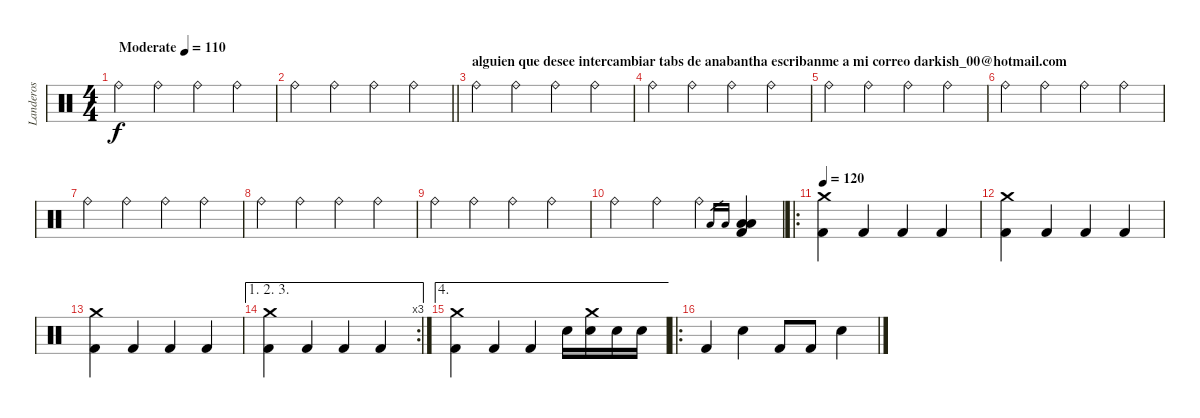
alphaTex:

\track ("Landeros" "Landeros") {instrument percussion}
\staff {score}
\articulation defaults
\ts (4 4)
\tempo (110 "Moderate")
\clef neutral
\ks c "Ride (bell)".4{dy f} "Ride (bell)".4 "Ride (bell)".4 "Ride (bell)".4
|
\barLineRight lightlight "Ride (bell)".4 "Ride (bell)".4 "Ride (bell)".4 "Ride (bell)".4
|
\section ("" "alguien que desee intercambiar tabs de anabantha escribanme a mi correo darkish_00@hotmail.com")
"Ride (bell)".4 "Ride (bell)".4 "Ride (bell)".4 "Ride (bell)".4 |
"Ride (bell)".4 "Ride (bell)".4 "Ride (bell)".4 "Ride (bell)".4 |
"Ride (bell)".4 "Ride (bell)".4 "Ride (bell)".4 "Ride (bell)".4 |
"Ride (bell)".4 "Ride (bell)".4 "Ride (bell)".4 "Ride (bell)".4 |
"Ride (bell)".4 "Ride (bell)".4 "Ride (bell)".4 "Ride (bell)".4 |
"Ride (bell)".4 "Ride (bell)".4 "Ride (bell)".4 "Ride (bell)".4 |
"Ride (bell)".4 "Ride (bell)".4 "Ride (bell)".4 "Ride (bell)".4 |
"Ride (bell)".4 "Ride (bell)".4 "Ride (bell)".4 "Low Floor Tom (hit)".16{gr} "Low Floor Tom (hit)".16{gr} ("Kick (hit) 2" "Low Floor Tom (hit)" "Low Floor Tom (hit)").4 |
\ro
\tempo 120
("Crash medium (hit)" "Kick (hit) 2").4 "Kick (hit) 2".4 "Kick (hit) 2".4 "Kick (hit) 2".4 |
("Crash medium (hit)" "Kick (hit) 2").4 "Kick (hit) 2".4 "Kick (hit) 2".4 "Kick (hit) 2".4 |
("Crash medium (hit)" "Kick (hit) 2").4 "Kick (hit) 2".4 "Kick (hit) 2".4 "Kick (hit) 2".4 |
\ae (1 2 3)
\rc 3
("Crash medium (hit)" "Kick (hit) 2").4 "Kick (hit) 2".4 "Kick (hit) 2".4 "Kick (hit) 2".4 |
\ae 4
("Crash medium (hit)" "Kick (hit) 2").4 "Kick (hit) 2".4 "Kick (hit) 2".4 "Snare (hit) 2".16 ("Crash medium (hit)" "Snare (hit) 2").16 "Snare (hit) 2".16 "Snare (hit) 2".16 |
\ro "Kick (hit) 2".4 "Snare (hit) 2".4 "Kick (hit) 2".8 "Kick (hit) 2".8 "Snare (hit) 2".4
